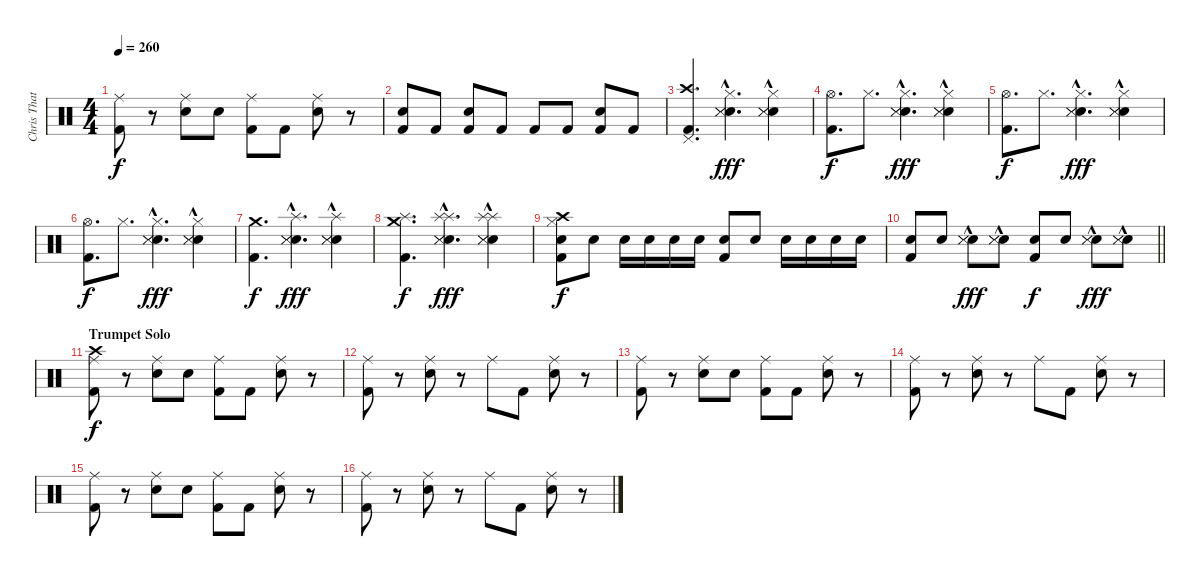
\track ("Chris Thatcher    - Drums" "Chris That") {instrument percussion}
\staff {score}
\articulation defaults
\ts (4 4)
\tempo 260
\clef neutral
\ks c
("Ride (middle)" "Kick (hit) 2").8{dy f} r.8 ("Ride (middle)" "Electric Snare (hit)").8 "Electric Snare (hit)".8 ("Ride (middle)" "Kick (hit) 2").8 "Kick (hit) 2".8 ("Ride (middle)" "Electric Snare (hit)").8 r.8 |
("Kick (hit) 2" "Electric Snare (hit)").8 "Kick (hit) 2".8 ("Kick (hit) 2" "Electric Snare (hit)").8 "Kick (hit) 2".8 "Kick (hit) 2".8 "Kick (hit) 2".8 ("Kick (hit) 2" "Electric Snare (hit)").8 "Kick (hit) 2".8 |
("Crash high (hit)" "Pedal Hi-Hat (hit)" "Kick (hit) 2").4{d} ("Hi-Hat (closed)" "Electric Snare (hit)" "Snare (side stick) 3"{hac} "Snare (side stick) 3"{hac}).4{d dy fff} ("Hi-Hat (closed)" "Electric Snare (hit)" "Snare (side stick) 3"{hac} "Snare (side stick) 3"{hac}).4 |
("Hi-Hat (open)" "Kick (hit) 2").8{d dy f} "Hi-Hat (closed)".8{d} ("Hi-Hat (closed)" "Electric Snare (hit)" "Snare (side stick) 3"{hac} "Snare (side stick) 3"{hac}).4{d dy fff} ("Hi-Hat (closed)" "Electric Snare (hit)" "Snare (side stick) 3"{hac} "Snare (side stick) 3"{hac}).4 |
("Hi-Hat (open)" "Kick (hit) 2").8{d dy f} "Hi-Hat (closed)".8{d} ("Hi-Hat (closed)" "Electric Snare (hit)" "Snare (side stick) 3"{hac} "Snare (side stick) 3"{hac}).4{d dy fff} ("Hi-Hat (closed)" "Electric Snare (hit)" "Snare (side stick) 3"{hac} "Snare (side stick) 3"{hac}).4 |
("Hi-Hat (open)" "Kick (hit) 2").8{d dy f} "Hi-Hat (closed)".8{d} ("Hi-Hat (closed)" "Electric Snare (hit)" "Snare (side stick) 3"{hac} "Snare (side stick) 3"{hac}).4{d dy fff} ("Hi-Hat (closed)" "Electric Snare (hit)" "Snare (side stick) 3"{hac} "Snare (side stick) 3"{hac}).4 |
("Crash medium (hit)" "Kick (hit) 2").4{d dy f} ("Splash (hit)" "Electric Snare (hit)" "Snare (side stick) 3"{hac} "Snare (side stick) 3"{hac}).4{d dy fff} ("Splash (hit)" "Electric Snare (hit)" "Snare (side stick) 3"{hac} "Snare (side stick) 3"{hac}).4 |
("Splash (hit)" "Crash medium (hit)" "Kick (hit) 2").4{d dy f} ("Splash (hit)" "Splash (hit)" "Electric Snare (hit)" "Snare (side stick) 3"{hac} "Snare (side stick) 3"{hac}).4{d dy fff} ("Splash (hit)" "Splash (hit)" "Electric Snare (hit)" "Snare (side stick) 3"{hac} "Snare (side stick) 3"{hac}).4 |
("Crash high (hit)" "Hi-Hat (closed)" "Kick (hit) 2" "Electric Snare (hit)").8{dy f} "Electric Snare (hit)".8 "Electric Snare (hit)".16 "Electric Snare (hit)".16 "Electric Snare (hit)".16 "Electric Snare (hit)".16 ("Kick (hit) 2" "Electric Snare (hit)").8 "Electric Snare (hit)".8 "Electric Snare (hit)".16 "Electric Snare (hit)".16 "Electric Snare (hit)".16 "Electric Snare (hit)".16 |
\barLineRight lightlight
("Kick (hit) 2" "Electric Snare (hit)").8 "Electric Snare (hit)".8 ("Electric Snare (hit)" "Snare (side stick) 3"{hac} "Snare (side stick) 3"{hac}).8{dy fff} ("Electric Snare (hit)" "Snare (side stick) 3"{hac} "Snare (side stick) 3"{hac}).8 ("Kick (hit) 2" "Electric Snare (hit)").8{dy f} "Electric Snare (hit)".8 ("Electric Snare (hit)" "Snare (side stick) 3"{hac} "Snare (side stick) 3"{hac}).8{dy fff} ("Electric Snare (hit)" "Snare (side stick) 3"{hac} "Snare (side stick) 3"{hac}).8 |
\section ("" "Trumpet Solo")
("Crash high (hit)" "Ride (middle)" "Kick (hit) 2").8{dy f} r.8 ("Ride (middle)" "Electric Snare (hit)").8 "Electric Snare (hit)".8 ("Ride (middle)" "Kick (hit) 2").8 "Kick (hit) 2".8 ("Ride (middle)" "Electric Snare (hit)").8 r.8 |
("Ride (middle)" "Kick (hit) 2").8 r.8 ("Ride (middle)" "Electric Snare (hit)").8 r.8 "Ride (middle)".8 "Kick (hit) 2".8 ("Ride (middle)" "Electric Snare (hit)").8 r.8 |
("Ride (middle)" "Kick (hit) 2").8 r.8 ("Ride (middle)" "Electric Snare (hit)").8 "Electric Snare (hit)".8 ("Ride (middle)" "Kick (hit) 2").8 "Kick (hit) 2".8 ("Ride (middle)" "Electric Snare (hit)").8 r.8 |
("Ride (middle)" "Kick (hit) 2").8 r.8 ("Ride (middle)" "Electric Snare (hit)").8 r.8 "Ride (middle)".8 "Kick (hit) 2".8 ("Ride (middle)" "Electric Snare (hit)").8 r.8 |
("Ride (middle)" "Kick (hit) 2").8 r.8 ("Ride (middle)" "Electric Snare (hit)").8 "Electric Snare (hit)".8 ("Ride (middle)" "Kick (hit) 2").8 "Kick (hit) 2".8 ("Ride (middle)" "Electric Snare (hit)").8 r.8 |
("Ride (middle)" "Kick (hit) 2").8 r.8 ("Ride (middle)" "Electric Snare (hit)").8 r.8 "Ride (middle)".8 "Kick (hit) 2".8 ("Ride (middle)" "Electric Snare (hit)").8 r.8
